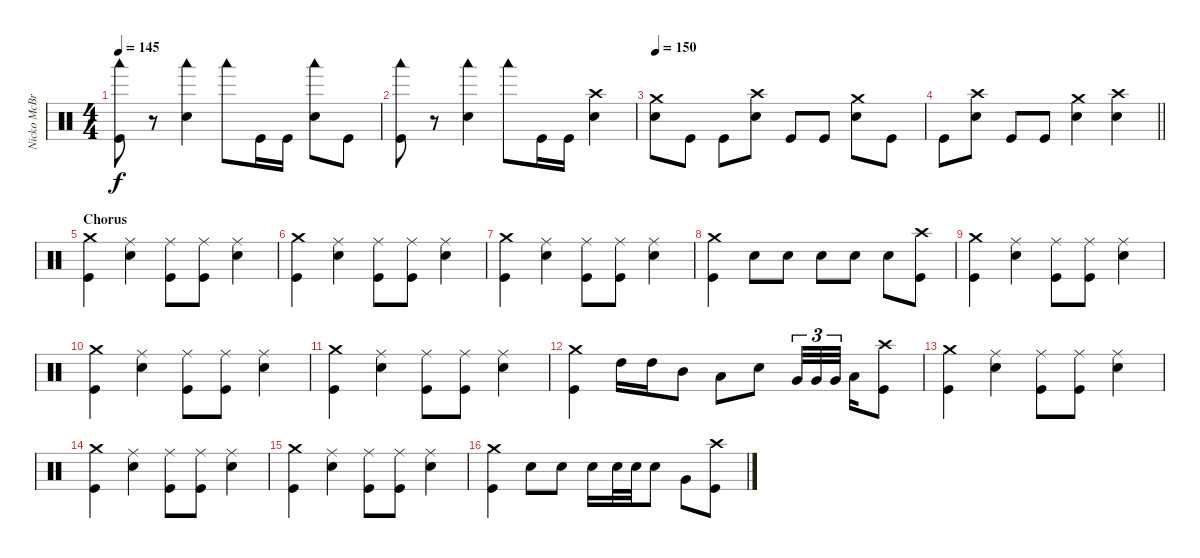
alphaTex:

\track ("Nicko McBrain" "Nicko McBr") {instrument percussion}
\staff {score}
\articulation defaults
\ts (4 4)
\tempo 145
\clef neutral
\ks c
("Woodblock low (hit)" "Kick (hit)").8{dy f} r.8 ("Woodblock low (hit)" "Electric Snare (hit)").4 "Woodblock low (hit)".8 "Kick (hit)".16 "Kick (hit)".16 ("Woodblock low (hit)" "Electric Snare (hit)").8 "Kick (hit)".8 |
("Woodblock low (hit)" "Kick (hit)").8 r.8 ("Woodblock low (hit)" "Electric Snare (hit)").4 "Woodblock low (hit)".8 "Kick (hit)".16 "Kick (hit)".16 ("Crash high (hit)" "Electric Snare (hit)").4 |
\tempo 150
("Crash medium (hit)" "Electric Snare (hit)").8 "Kick (hit)".8 "Kick (hit)".8 ("Crash high (hit)" "Electric Snare (hit)").8 "Kick (hit)".8 "Kick (hit)".8 ("Crash medium (hit)" "Electric Snare (hit)").8 "Kick (hit)".8 |
\barLineRight lightlight "Kick (hit)".8
("Crash high (hit)" "Electric Snare (hit)").8 "Kick (hit)".8 "Kick (hit)".8 ("Crash medium (hit)" "Electric Snare (hit)").4 ("Crash high (hit)" "Electric Snare (hit)").4 |
\section ("" "Chorus")
("Kick (hit)" "Crash medium (hit)").4 ("Electric Snare (hit)" "Ride (middle)").4 ("Kick (hit)" "Ride (middle)").8 ("Kick (hit)" "Ride (middle)").8 ("Electric Snare (hit)" "Ride (middle)").4 |
("Kick (hit)" "Crash medium (hit)").4 ("Electric Snare (hit)" "Ride (middle)").4 ("Kick (hit)" "Ride (middle)").8 ("Kick (hit)" "Ride (middle)").8 ("Electric Snare (hit)" "Ride (middle)").4 |
("Kick (hit)" "Crash medium (hit)").4 ("Electric Snare (hit)" "Ride (middle)").4 ("Kick (hit)" "Ride (middle)").8 ("Kick (hit)" "Ride (middle)").8 ("Electric Snare (hit)" "Ride (middle)").4 |
("Kick (hit)" "Crash medium (hit)").4 "Electric Snare (hit)".8 "Electric Snare (hit)".8 "Electric Snare (hit)".8 "Electric Snare (hit)".8 "Electric Snare (hit)".8 ("Kick (hit)" "Crash high (hit)").8 |
("Kick (hit)" "Crash medium (hit)").4 ("Electric Snare (hit)" "Ride (middle)").4 ("Kick (hit)" "Ride (middle)").8 ("Kick (hit)" "Ride (middle)").8 ("Electric Snare (hit)" "Ride (middle)").4 |
("Kick (hit)" "Crash medium (hit)").4 ("Electric Snare (hit)" "Ride (middle)").4 ("Kick (hit)" "Ride (middle)").8 ("Kick (hit)" "Ride (middle)").8 ("Electric Snare (hit)" "Ride (middle)").4 |
("Kick (hit)" "Crash medium (hit)").4 ("Electric Snare (hit)" "Ride (middle)").4 ("Kick (hit)" "Ride (middle)").8 ("Kick (hit)" "Ride (middle)").8 ("Electric Snare (hit)" "Ride (middle)").4 |
("Kick (hit)" "Crash medium (hit)").4 "High Tom (hit)".16 "High Tom (hit)".16 "Mid Tom (hit)".8 "Low Tom (hit)".8 "Electric Snare (hit)".8 "Very Low Tom (hit)".32{tu (3 2)} "Very Low Tom (hit)".32{tu (3 2)} "Very Low Tom (hit)".32{tu (3 2) beam splitsecondary} "Low Floor Tom (hit)".16 ("Kick (hit)" "Crash high (hit)").8 |
("Kick (hit)" "Crash medium (hit)").4 ("Electric Snare (hit)" "Ride (middle)").4 ("Kick (hit)" "Ride (middle)").8 ("Kick (hit)" "Ride (middle)").8 ("Electric Snare (hit)" "Ride (middle)").4 |
("Kick (hit)" "Crash medium (hit)").4 ("Electric Snare (hit)" "Ride (middle)").4 ("Kick (hit)" "Ride (middle)").8 ("Kick (hit)" "Ride (middle)").8 ("Electric Snare (hit)" "Ride (middle)").4 |
("Kick (hit)" "Crash medium (hit)").4 ("Electric Snare (hit)" "Ride (middle)").4 ("Kick (hit)" "Ride (middle)").8 ("Kick (hit)" "Ride (middle)").8 ("Electric Snare (hit)" "Ride (middle)").4 |
("Kick (hit)" "Crash medium (hit)").4 "Electric Snare (hit)".8 "Electric Snare (hit)".8 "Electric Snare (hit)".16 "Electric Snare (hit)".32 "Electric Snare (hit)".32 "Electric Snare (hit)".8 "Very Low Tom (hit)".8 ("Kick (hit)" "Crash high (hit)").8
